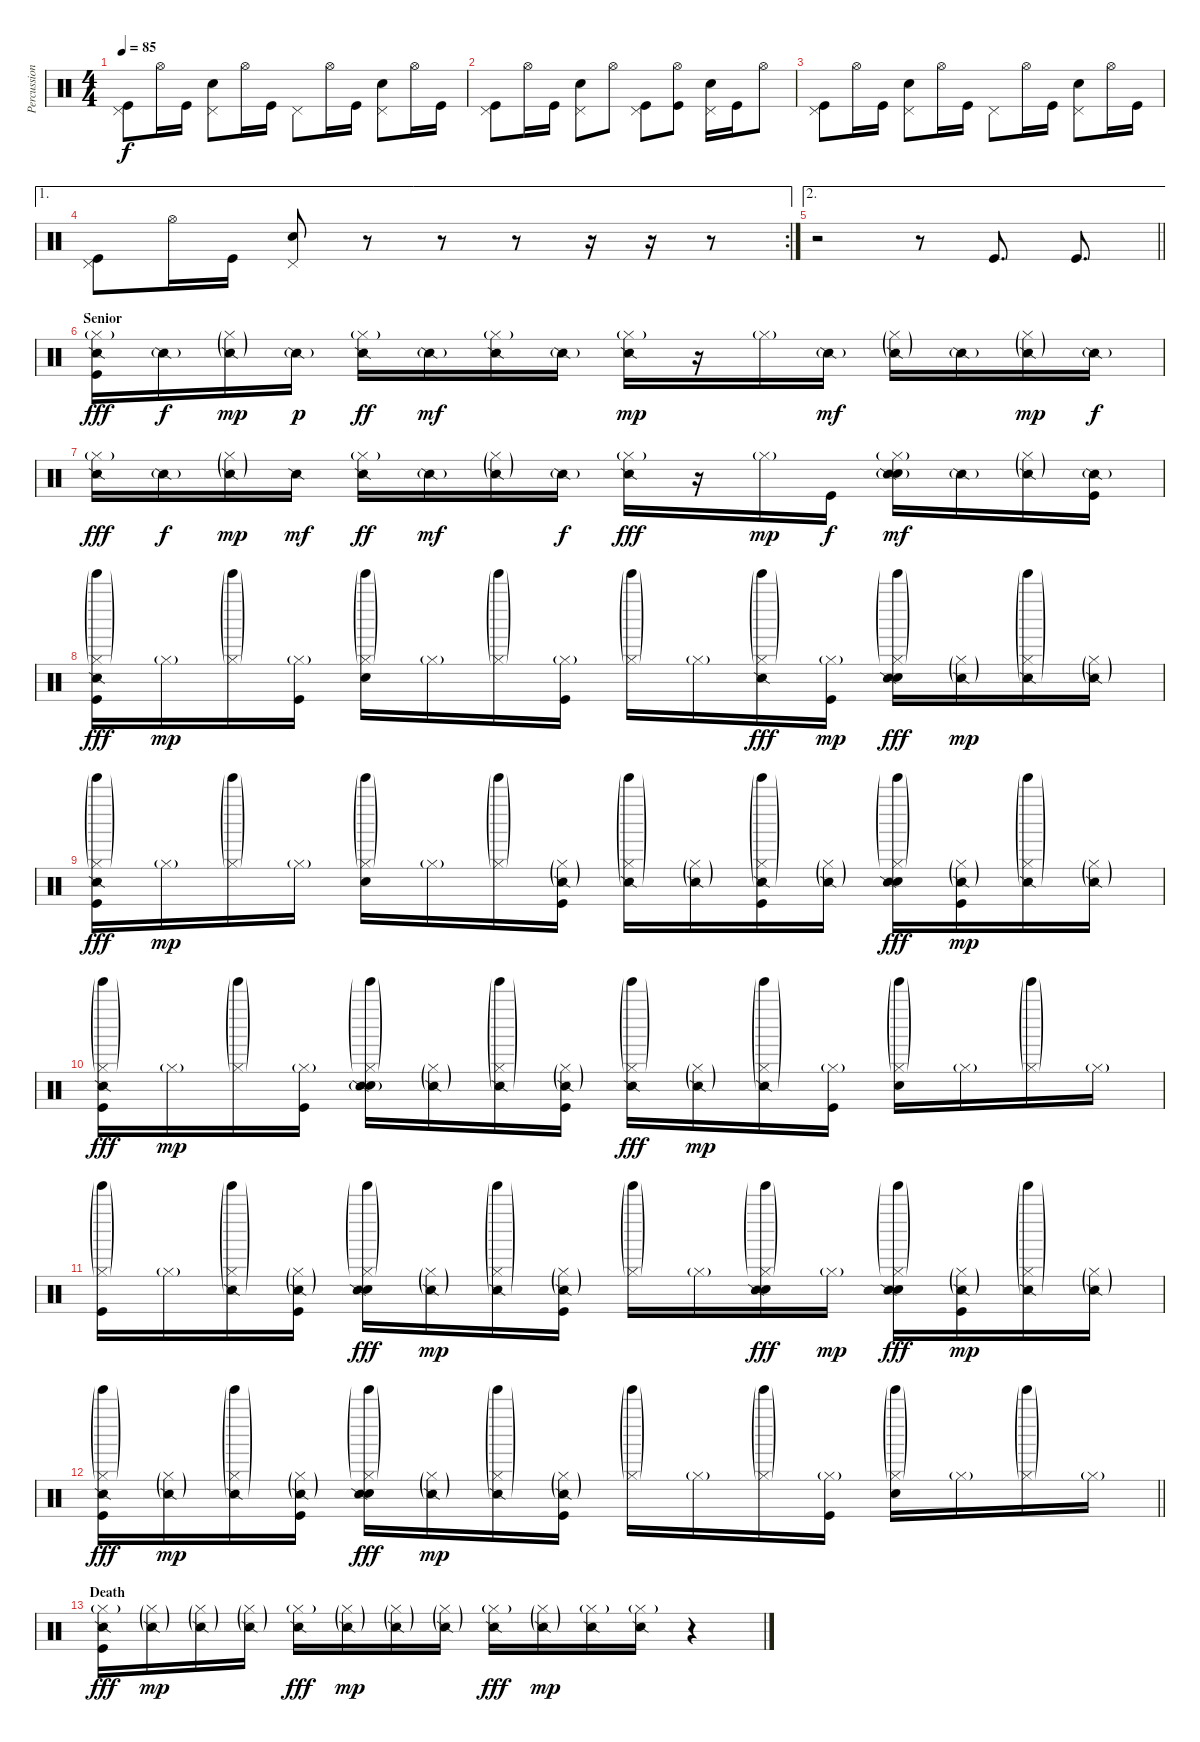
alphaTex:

\track ("Percussion" "Percussion") {instrument percussion}
\staff {score}
\articulation defaults
\ts (4 4)
\tempo 85
\clef neutral
\ks c
("Pedal Hi-Hat (hit)" "Kick (hit)").8{dy f} "Hi-Hat (open)".16 "Kick (hit)".16 ("Pedal Hi-Hat (hit)" "Snare (hit) 2").8 "Hi-Hat (open)".16 "Kick (hit)".16 "Pedal Hi-Hat (hit)".8 "Hi-Hat (open)".16 "Kick (hit)".16 ("Pedal Hi-Hat (hit)" "Snare (hit) 2").8 "Hi-Hat (open)".16 "Kick (hit)".16 |
("Pedal Hi-Hat (hit)" "Kick (hit)").8 "Hi-Hat (open)".16 "Kick (hit)".16 ("Pedal Hi-Hat (hit)" "Snare (hit) 2").8 "Hi-Hat (open)".8 ("Pedal Hi-Hat (hit)" "Kick (hit)").8 ("Hi-Hat (open)" "Kick (hit)").8 ("Pedal Hi-Hat (hit)" "Snare (hit) 2").16 "Kick (hit)".16 "Hi-Hat (open)".8 |
("Pedal Hi-Hat (hit)" "Kick (hit)").8 "Hi-Hat (open)".16 "Kick (hit)".16 ("Pedal Hi-Hat (hit)" "Snare (hit) 2").8 "Hi-Hat (open)".16 "Kick (hit)".16 "Pedal Hi-Hat (hit)".8 "Hi-Hat (open)".16 "Kick (hit)".16 ("Pedal Hi-Hat (hit)" "Snare (hit) 2").8 "Hi-Hat (open)".16 "Kick (hit)".16 |
\ae 1
\rc 2
("Pedal Hi-Hat (hit)" "Kick (hit)").8 "Hi-Hat (open)".16 "Kick (hit)".16 ("Pedal Hi-Hat (hit)" "Snare (hit) 2").8 r.8 r.8 r.8 r.16 r.16 r.8 |
\ae 2
\barLineRight lightlight
r.2 r.8 "Kick (hit)".8{d} "Kick (hit)".8{d} |
\section ("" "Senior")
("Hi-Hat (closed)"{g} "Snare (side stick) 2" "Kick (hit)").16{dy fff} "Snare (side stick) 2"{g}.16{dy f} ("Hi-Hat (closed)"{g} "Snare (side stick) 2"{g}).16{dy mp} "Snare (side stick) 2"{g}.16{dy p} ("Hi-Hat (closed)"{g} "Snare (side stick) 2").16{dy ff} "Snare (side stick) 2"{g}.16{dy mf} ("Hi-Hat (closed)"{g} "Snare (side stick) 2").16 "Snare (side stick) 2"{g}.16 ("Hi-Hat (closed)"{g} "Snare (side stick) 2").16{dy mp} r.16 "Hi-Hat (closed)"{g}.16 "Snare (side stick) 2"{g}.16{dy mf} ("Hi-Hat (closed)"{g} "Snare (side stick) 2"{g}).16 "Snare (side stick) 2"{g}.16 ("Hi-Hat (closed)"{g} "Snare (side stick) 2"{g}).16{dy mp} "Snare (side stick) 2"{g}.16{dy f} |
("Hi-Hat (closed)"{g} "Snare (side stick) 2").16{dy fff} "Snare (side stick) 2"{g}.16{dy f} ("Hi-Hat (closed)"{g} "Snare (side stick) 2"{g}).16{dy mp} "Snare (side stick) 2".16{dy mf} ("Hi-Hat (closed)"{g} "Snare (side stick) 2").16{dy ff} "Snare (side stick) 2"{g}.16{dy mf} ("Hi-Hat (closed)"{g} "Snare (side stick) 2"{g}).16 "Snare (side stick) 2"{g}.16{dy f} ("Hi-Hat (closed)"{g} "Snare (side stick) 2").16{dy fff} r.16 "Hi-Hat (closed)"{g}.16{dy mp} "Kick (hit)".16{dy f} ("Hi-Hat (closed)"{g} "Snare (hit) 2" "Snare (side stick) 2"{g}).16{dy mf} "Snare (side stick) 2"{g}.16 ("Hi-Hat (closed)"{g} "Snare (side stick) 2"{g}).16 ("Snare (side stick) 2"{g} "Kick (hit)").16 |
("Hi-Hat (closed)"{g} "Tinkle Bell (hit)"{g} "Snare (side stick) 2" "Kick (hit)").16{dy fff} "Hi-Hat (closed)"{g}.16{dy mp} ("Hi-Hat (closed)"{g} "Tinkle Bell (hit)"{g}).16 ("Hi-Hat (closed)"{g} "Kick (hit)").16 ("Hi-Hat (closed)"{g} "Tinkle Bell (hit)"{g} "Snare (hit) 2").16 "Hi-Hat (closed)"{g}.16 ("Hi-Hat (closed)"{g} "Tinkle Bell (hit)"{g}).16 ("Hi-Hat (closed)"{g} "Kick (hit)").16 ("Hi-Hat (closed)"{g} "Tinkle Bell (hit)"{g}).16 "Hi-Hat (closed)"{g}.16 ("Hi-Hat (closed)"{g} "Tinkle Bell (hit)"{g} "Snare (side stick) 2").16{dy fff} ("Hi-Hat (closed)"{g} "Kick (hit)").16{dy mp} ("Hi-Hat (closed)"{g} "Tinkle Bell (hit)"{g} "Snare (hit) 2" "Snare (side stick) 2").16{dy fff} ("Hi-Hat (closed)"{g} "Snare (side stick) 2"{g}).16{dy mp} ("Hi-Hat (closed)"{g} "Tinkle Bell (hit)"{g} "Snare (side stick) 2"{g}).16 ("Hi-Hat (closed)"{g} "Snare (side stick) 2"{g}).16 |
("Hi-Hat (closed)"{g} "Tinkle Bell (hit)"{g} "Snare (side stick) 2" "Kick (hit)").16{dy fff} "Hi-Hat (closed)"{g}.16{dy mp} ("Hi-Hat (closed)"{g} "Tinkle Bell (hit)"{g}).16 "Hi-Hat (closed)"{g}.16 ("Hi-Hat (closed)"{g} "Tinkle Bell (hit)"{g} "Snare (hit) 2").16 "Hi-Hat (closed)"{g}.16 ("Hi-Hat (closed)"{g} "Tinkle Bell (hit)"{g}).16 ("Hi-Hat (closed)"{g} "Snare (side stick) 2"{g} "Kick (hit)").16 ("Hi-Hat (closed)"{g} "Tinkle Bell (hit)"{g} "Snare (side stick) 2"{g}).16 ("Hi-Hat (closed)"{g} "Snare (side stick) 2"{g}).16 ("Hi-Hat (closed)"{g} "Tinkle Bell (hit)"{g} "Snare (side stick) 2"{g} "Kick (hit)").16 ("Hi-Hat (closed)"{g} "Snare (side stick) 2"{g}).16 ("Hi-Hat (closed)"{g} "Tinkle Bell (hit)"{g} "Snare (hit) 2" "Snare (side stick) 2").16{dy fff} ("Hi-Hat (closed)"{g} "Snare (side stick) 2"{g} "Kick (hit)").16{dy mp} ("Hi-Hat (closed)"{g} "Tinkle Bell (hit)"{g} "Snare (side stick) 2"{g}).16 ("Hi-Hat (closed)"{g} "Snare (side stick) 2"{g}).16 |
("Hi-Hat (closed)"{g} "Tinkle Bell (hit)"{g} "Snare (side stick) 2" "Kick (hit)").16{dy fff} "Hi-Hat (closed)"{g}.16{dy mp} ("Hi-Hat (closed)"{g} "Tinkle Bell (hit)"{g}).16 ("Hi-Hat (closed)"{g} "Kick (hit)").16 ("Hi-Hat (closed)"{g} "Tinkle Bell (hit)"{g} "Snare (hit) 2" "Snare (side stick) 2"{g}).16 ("Hi-Hat (closed)"{g} "Snare (side stick) 2"{g}).16 ("Hi-Hat (closed)"{g} "Tinkle Bell (hit)"{g} "Snare (side stick) 2"{g}).16 ("Hi-Hat (closed)"{g} "Snare (side stick) 2"{g} "Kick (hit)").16 ("Hi-Hat (closed)"{g} "Tinkle Bell (hit)"{g} "Snare (side stick) 2").16{dy fff} ("Hi-Hat (closed)"{g} "Snare (side stick) 2"{g}).16{dy mp} ("Hi-Hat (closed)"{g} "Tinkle Bell (hit)"{g} "Snare (side stick) 2"{g}).16 ("Hi-Hat (closed)"{g} "Kick (hit)").16 ("Hi-Hat (closed)"{g} "Tinkle Bell (hit)"{g} "Snare (hit) 2").16 "Hi-Hat (closed)"{g}.16 ("Hi-Hat (closed)"{g} "Tinkle Bell (hit)"{g}).16 "Hi-Hat (closed)"{g}.16 |
("Hi-Hat (closed)"{g} "Tinkle Bell (hit)"{g} "Kick (hit)").16 "Hi-Hat (closed)"{g}.16 ("Hi-Hat (closed)"{g} "Tinkle Bell (hit)"{g} "Snare (side stick) 2"{g}).16 ("Hi-Hat (closed)"{g} "Snare (side stick) 2"{g} "Kick (hit)").16 ("Hi-Hat (closed)"{g} "Tinkle Bell (hit)"{g} "Snare (hit) 2" "Snare (side stick) 2").16{dy fff} ("Hi-Hat (closed)"{g} "Snare (side stick) 2"{g}).16{dy mp} ("Hi-Hat (closed)"{g} "Tinkle Bell (hit)"{g} "Snare (side stick) 2"{g}).16 ("Hi-Hat (closed)"{g} "Snare (side stick) 2"{g} "Kick (hit)").16 ("Hi-Hat (closed)"{g} "Tinkle Bell (hit)"{g}).16 "Hi-Hat (closed)"{g}.16 ("Hi-Hat (closed)"{g} "Tinkle Bell (hit)"{g} "Snare (hit) 2" "Snare (side stick) 2").16{dy fff} "Hi-Hat (closed)"{g}.16{dy mp} ("Hi-Hat (closed)"{g} "Tinkle Bell (hit)"{g} "Snare (hit) 2" "Snare (side stick) 2").16{dy fff} ("Hi-Hat (closed)"{g} "Snare (side stick) 2"{g} "Kick (hit)").16{dy mp} ("Hi-Hat (closed)"{g} "Tinkle Bell (hit)"{g} "Snare (side stick) 2"{g}).16 ("Hi-Hat (closed)"{g} "Snare (side stick) 2"{g}).16 |
\barLineRight lightlight
("Hi-Hat (closed)"{g} "Tinkle Bell (hit)"{g} "Snare (side stick) 2" "Kick (hit)").16{dy fff} ("Hi-Hat (closed)"{g} "Snare (side stick) 2"{g}).16{dy mp} ("Hi-Hat (closed)"{g} "Tinkle Bell (hit)"{g} "Snare (side stick) 2"{g}).16 ("Hi-Hat (closed)"{g} "Snare (side stick) 2"{g} "Kick (hit)").16 ("Hi-Hat (closed)"{g} "Tinkle Bell (hit)"{g} "Snare (hit) 2" "Snare (side stick) 2").16{dy fff} ("Hi-Hat (closed)"{g} "Snare (side stick) 2"{g}).16{dy mp} ("Hi-Hat (closed)"{g} "Tinkle Bell (hit)"{g} "Snare (side stick) 2"{g}).16 ("Hi-Hat (closed)"{g} "Snare (side stick) 2"{g} "Kick (hit)").16 ("Hi-Hat (closed)"{g} "Tinkle Bell (hit)"{g}).16 "Hi-Hat (closed)"{g}.16 ("Hi-Hat (closed)"{g} "Tinkle Bell (hit)"{g}).16 ("Hi-Hat (closed)"{g} "Kick (hit)").16 ("Hi-Hat (closed)"{g} "Tinkle Bell (hit)"{g} "Snare (hit) 2").16 "Hi-Hat (closed)"{g}.16 ("Hi-Hat (closed)"{g} "Tinkle Bell (hit)"{g}).16 "Hi-Hat (closed)"{g}.16 |
\section ("" "Death")
("Hi-Hat (closed)"{g} "Snare (side stick) 2" "Kick (hit)").16{dy fff volume 0} ("Hi-Hat (closed)"{g} "Snare (side stick) 2"{g}).16{dy mp} ("Hi-Hat (closed)"{g} "Snare (side stick) 2"{g}).16 ("Hi-Hat (closed)"{g} "Snare (side stick) 2"{g}).16 ("Hi-Hat (closed)"{g} "Snare (side stick) 2").16{dy fff} ("Hi-Hat (closed)"{g} "Snare (side stick) 2"{g}).16{dy mp} ("Hi-Hat (closed)"{g} "Snare (side stick) 2"{g}).16 ("Hi-Hat (closed)"{g} "Snare (side stick) 2"{g}).16 ("Hi-Hat (closed)"{g} "Snare (side stick) 2").16{dy fff} ("Hi-Hat (closed)"{g} "Snare (side stick) 2"{g}).16{dy mp} ("Hi-Hat (closed)"{g} "Snare (side stick) 2").16 ("Hi-Hat (closed)"{g} "Snare (side stick) 2").16 r.4
